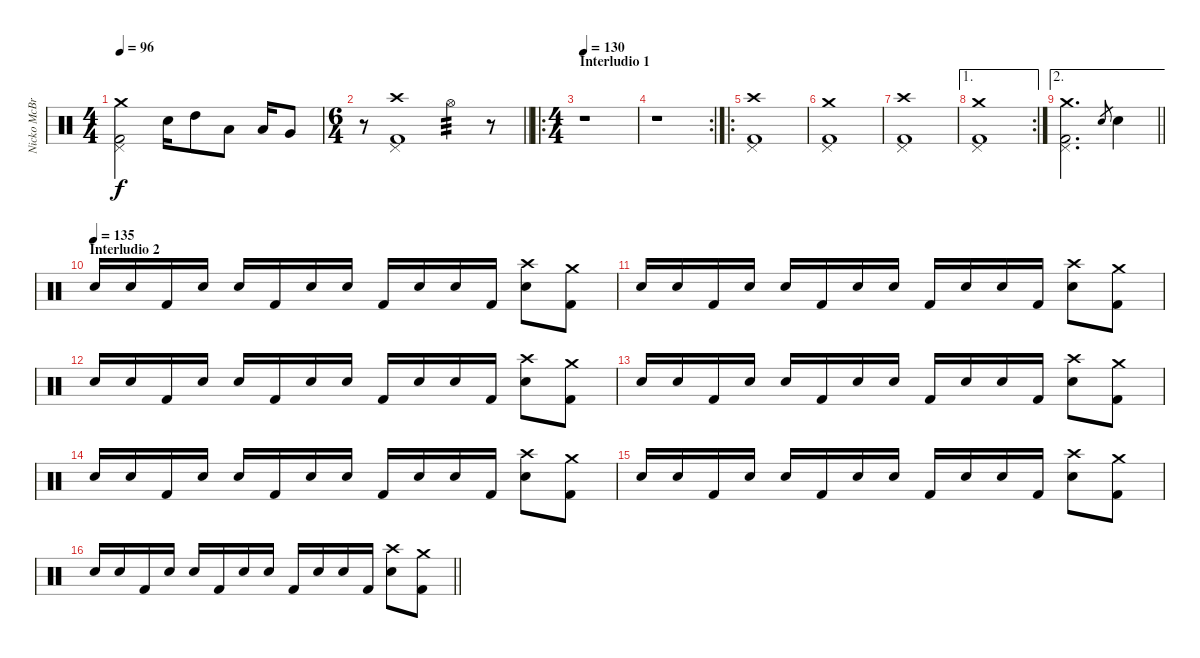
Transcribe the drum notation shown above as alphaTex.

\track ("Nicko McBrain" "Nicko McBr") {instrument percussion}
\staff {score}
\articulation defaults
\ts (4 4)
\tempo 96
\clef neutral
\ks c
("Kick (hit) 2" "Pedal Hi-Hat (hit)" "Crash medium (hit)").2{dy f} "Snare (hit) 2".16 "High Tom (hit)".8 "Low Tom (hit)".8 "Low Tom (hit)".16 "Very Low Tom (hit)".8 |
\ts (6 4)
\barLineRight lightlight
r.8 ("Kick (hit) 2" "Pedal Hi-Hat (hit)" "Crash high (hit)").1 "Hi-Hat (open)".4{tp 3} r.8 |
\ro
\ts (4 4)
\section ("" "Interludio 1")
\tempo 130
r.1 |
\rc 2
r.1 |
\ro
("Kick (hit) 2" "Pedal Hi-Hat (hit)" "Crash high (hit)").1 |
("Kick (hit) 2" "Pedal Hi-Hat (hit)" "Crash medium (hit)").1 |
("Kick (hit) 2" "Pedal Hi-Hat (hit)" "Crash high (hit)").1 |
\ae 1
\rc 2
("Kick (hit) 2" "Pedal Hi-Hat (hit)" "Crash medium (hit)").1 |
\ae 2
\barLineRight lightlight
("Kick (hit) 2" "Pedal Hi-Hat (hit)" "Crash medium (hit)").2{d} "Snare (hit) 2".8{gr} "Snare (hit) 2".4 |
\section ("" "Interludio 2")
\tempo (135)
"Snare (hit) 2".16 "Snare (hit) 2".16 "Kick (hit) 2".16 "Snare (hit) 2".16 "Snare (hit) 2".16 "Kick (hit) 2".16 "Snare (hit) 2".16 "Snare (hit) 2".16 "Kick (hit) 2".16 "Snare (hit) 2".16 "Snare (hit) 2".16 "Kick (hit) 2".16 ("Snare (hit) 2" "Crash high (hit)").8 ("Kick (hit) 2" "Crash medium (hit)").8 |
"Snare (hit) 2".16 "Snare (hit) 2".16 "Kick (hit) 2".16 "Snare (hit) 2".16 "Snare (hit) 2".16 "Kick (hit) 2".16 "Snare (hit) 2".16 "Snare (hit) 2".16 "Kick (hit) 2".16 "Snare (hit) 2".16 "Snare (hit) 2".16 "Kick (hit) 2".16 ("Snare (hit) 2" "Crash high (hit)").8 ("Kick (hit) 2" "Crash medium (hit)").8 |
"Snare (hit) 2".16 "Snare (hit) 2".16 "Kick (hit) 2".16 "Snare (hit) 2".16 "Snare (hit) 2".16 "Kick (hit) 2".16 "Snare (hit) 2".16 "Snare (hit) 2".16 "Kick (hit) 2".16 "Snare (hit) 2".16 "Snare (hit) 2".16 "Kick (hit) 2".16 ("Snare (hit) 2" "Crash high (hit)").8 ("Kick (hit) 2" "Crash medium (hit)").8 |
"Snare (hit) 2".16 "Snare (hit) 2".16 "Kick (hit) 2".16 "Snare (hit) 2".16 "Snare (hit) 2".16 "Kick (hit) 2".16 "Snare (hit) 2".16 "Snare (hit) 2".16 "Kick (hit) 2".16 "Snare (hit) 2".16 "Snare (hit) 2".16 "Kick (hit) 2".16 ("Snare (hit) 2" "Crash high (hit)").8 ("Kick (hit) 2" "Crash medium (hit)").8 |
"Snare (hit) 2".16 "Snare (hit) 2".16 "Kick (hit) 2".16 "Snare (hit) 2".16 "Snare (hit) 2".16 "Kick (hit) 2".16 "Snare (hit) 2".16 "Snare (hit) 2".16 "Kick (hit) 2".16 "Snare (hit) 2".16 "Snare (hit) 2".16 "Kick (hit) 2".16 ("Snare (hit) 2" "Crash high (hit)").8 ("Kick (hit) 2" "Crash medium (hit)").8 |
"Snare (hit) 2".16 "Snare (hit) 2".16 "Kick (hit) 2".16 "Snare (hit) 2".16 "Snare (hit) 2".16 "Kick (hit) 2".16 "Snare (hit) 2".16 "Snare (hit) 2".16 "Kick (hit) 2".16 "Snare (hit) 2".16 "Snare (hit) 2".16 "Kick (hit) 2".16 ("Snare (hit) 2" "Crash high (hit)").8 ("Kick (hit) 2" "Crash medium (hit)").8 |
\barLineRight lightlight "Snare (hit) 2".16 "Snare (hit) 2".16 "Kick (hit) 2".16 "Snare (hit) 2".16 "Snare (hit) 2".16 "Kick (hit) 2".16 "Snare (hit) 2".16 "Snare (hit) 2".16 "Kick (hit) 2".16 "Snare (hit) 2".16 "Snare (hit) 2".16 "Kick (hit) 2".16
("Snare (hit) 2" "Crash high (hit)").8 ("Kick (hit) 2" "Crash medium (hit)").8
